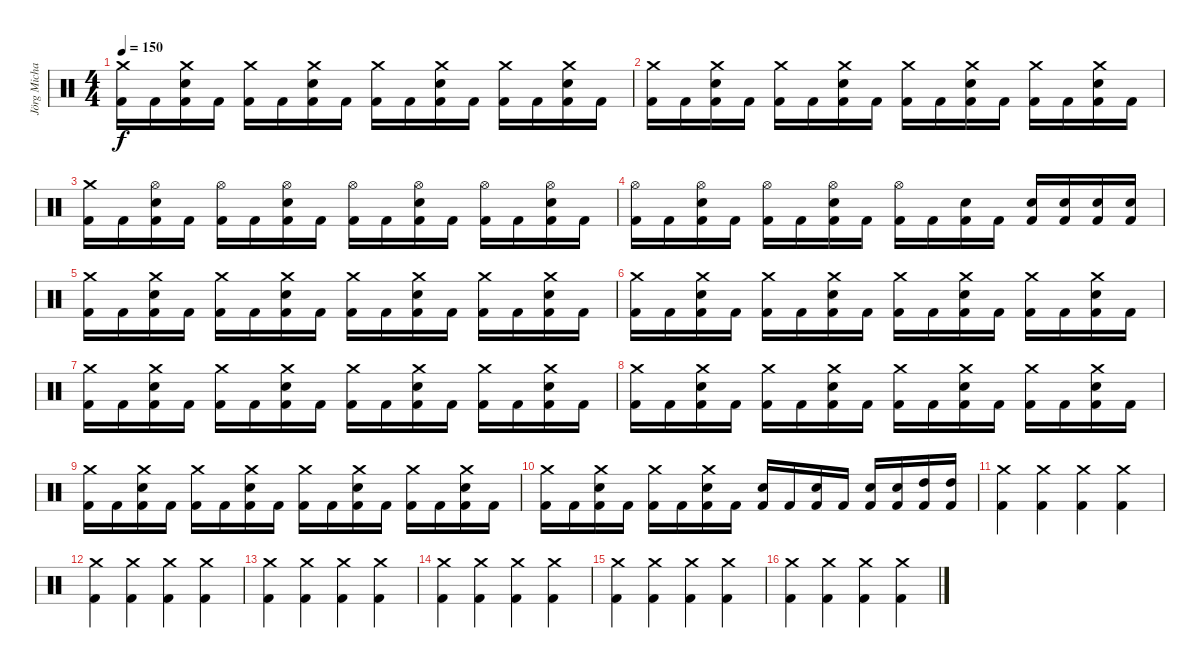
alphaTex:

\track ("Jörg Michael" "Jörg Micha") {instrument percussion}
\staff {score}
\articulation defaults
\ts (4 4)
\tempo 150
\clef neutral
\ks c
("Crash medium (hit)" "Kick (hit) 2").16{dy f} "Kick (hit) 2".16 ("Snare (hit) 2" "Crash medium (hit)" "Kick (hit) 2").16 "Kick (hit) 2".16 ("Crash medium (hit)" "Kick (hit) 2").16 "Kick (hit) 2".16 ("Snare (hit) 2" "Crash medium (hit)" "Kick (hit) 2").16 "Kick (hit) 2".16 ("Crash medium (hit)" "Kick (hit) 2").16 "Kick (hit) 2".16 ("Snare (hit) 2" "Crash medium (hit)" "Kick (hit) 2").16 "Kick (hit) 2".16 ("Crash medium (hit)" "Kick (hit) 2").16 "Kick (hit) 2".16 ("Snare (hit) 2" "Crash medium (hit)" "Kick (hit) 2").16 "Kick (hit) 2".16 |
("Crash medium (hit)" "Kick (hit) 2").16 "Kick (hit) 2".16 ("Snare (hit) 2" "Crash medium (hit)" "Kick (hit) 2").16 "Kick (hit) 2".16 ("Crash medium (hit)" "Kick (hit) 2").16 "Kick (hit) 2".16 ("Snare (hit) 2" "Crash medium (hit)" "Kick (hit) 2").16 "Kick (hit) 2".16 ("Crash medium (hit)" "Kick (hit) 2").16 "Kick (hit) 2".16 ("Snare (hit) 2" "Crash medium (hit)" "Kick (hit) 2").16 "Kick (hit) 2".16 ("Crash medium (hit)" "Kick (hit) 2").16 "Kick (hit) 2".16 ("Snare (hit) 2" "Crash medium (hit)" "Kick (hit) 2").16 "Kick (hit) 2".16 |
("Crash medium (hit)" "Kick (hit) 2").16 "Kick (hit) 2".16 ("Hi-Hat (open)" "Snare (hit) 2" "Kick (hit) 2").16 "Kick (hit) 2".16 ("Hi-Hat (open)" "Kick (hit) 2").16 "Kick (hit) 2".16 ("Hi-Hat (open)" "Snare (hit) 2" "Kick (hit) 2").16 "Kick (hit) 2".16 ("Hi-Hat (open)" "Kick (hit) 2").16 "Kick (hit) 2".16 ("Hi-Hat (open)" "Snare (hit) 2" "Kick (hit) 2").16 "Kick (hit) 2".16 ("Hi-Hat (open)" "Kick (hit) 2").16 "Kick (hit) 2".16 ("Hi-Hat (open)" "Snare (hit) 2" "Kick (hit) 2").16 "Kick (hit) 2".16 |
("Hi-Hat (open)" "Kick (hit) 2").16 "Kick (hit) 2".16 ("Hi-Hat (open)" "Snare (hit) 2" "Kick (hit) 2").16 "Kick (hit) 2".16 ("Hi-Hat (open)" "Kick (hit) 2").16 "Kick (hit) 2".16 ("Hi-Hat (open)" "Snare (hit) 2" "Kick (hit) 2").16 "Kick (hit) 2".16 ("Hi-Hat (open)" "Kick (hit) 2").16 "Kick (hit) 2".16 ("Snare (hit) 2" "Kick (hit) 2").16 "Kick (hit) 2".16 ("Snare (hit) 2" "Kick (hit) 2").16 ("Snare (hit) 2" "Kick (hit) 2").16 ("Snare (hit) 2" "Kick (hit) 2").16 ("Snare (hit) 2" "Kick (hit) 2").16 |
("Crash medium (hit)" "Kick (hit) 2").16 "Kick (hit) 2".16 ("Snare (hit) 2" "Crash medium (hit)" "Kick (hit) 2").16 "Kick (hit) 2".16 ("Crash medium (hit)" "Kick (hit) 2").16 "Kick (hit) 2".16 ("Snare (hit) 2" "Crash medium (hit)" "Kick (hit) 2").16 "Kick (hit) 2".16 ("Crash medium (hit)" "Kick (hit) 2").16 "Kick (hit) 2".16 ("Snare (hit) 2" "Crash medium (hit)" "Kick (hit) 2").16 "Kick (hit) 2".16 ("Crash medium (hit)" "Kick (hit) 2").16 "Kick (hit) 2".16 ("Snare (hit) 2" "Crash medium (hit)" "Kick (hit) 2").16 "Kick (hit) 2".16 |
("Crash medium (hit)" "Kick (hit) 2").16 "Kick (hit) 2".16 ("Snare (hit) 2" "Crash medium (hit)" "Kick (hit) 2").16 "Kick (hit) 2".16 ("Crash medium (hit)" "Kick (hit) 2").16 "Kick (hit) 2".16 ("Snare (hit) 2" "Crash medium (hit)" "Kick (hit) 2").16 "Kick (hit) 2".16 ("Crash medium (hit)" "Kick (hit) 2").16 "Kick (hit) 2".16 ("Snare (hit) 2" "Crash medium (hit)" "Kick (hit) 2").16 "Kick (hit) 2".16 ("Crash medium (hit)" "Kick (hit) 2").16 "Kick (hit) 2".16 ("Snare (hit) 2" "Crash medium (hit)" "Kick (hit) 2").16 "Kick (hit) 2".16 |
("Crash medium (hit)" "Kick (hit) 2").16 "Kick (hit) 2".16 ("Snare (hit) 2" "Crash medium (hit)" "Kick (hit) 2").16 "Kick (hit) 2".16 ("Crash medium (hit)" "Kick (hit) 2").16 "Kick (hit) 2".16 ("Snare (hit) 2" "Crash medium (hit)" "Kick (hit) 2").16 "Kick (hit) 2".16 ("Crash medium (hit)" "Kick (hit) 2").16 "Kick (hit) 2".16 ("Snare (hit) 2" "Crash medium (hit)" "Kick (hit) 2").16 "Kick (hit) 2".16 ("Crash medium (hit)" "Kick (hit) 2").16 "Kick (hit) 2".16 ("Snare (hit) 2" "Crash medium (hit)" "Kick (hit) 2").16 "Kick (hit) 2".16 |
("Crash medium (hit)" "Kick (hit) 2").16 "Kick (hit) 2".16 ("Snare (hit) 2" "Crash medium (hit)" "Kick (hit) 2").16 "Kick (hit) 2".16 ("Crash medium (hit)" "Kick (hit) 2").16 "Kick (hit) 2".16 ("Snare (hit) 2" "Crash medium (hit)" "Kick (hit) 2").16 "Kick (hit) 2".16 ("Crash medium (hit)" "Kick (hit) 2").16 "Kick (hit) 2".16 ("Snare (hit) 2" "Crash medium (hit)" "Kick (hit) 2").16 "Kick (hit) 2".16 ("Crash medium (hit)" "Kick (hit) 2").16 "Kick (hit) 2".16 ("Snare (hit) 2" "Crash medium (hit)" "Kick (hit) 2").16 "Kick (hit) 2".16 |
("Crash medium (hit)" "Kick (hit) 2").16 "Kick (hit) 2".16 ("Snare (hit) 2" "Crash medium (hit)" "Kick (hit) 2").16 "Kick (hit) 2".16 ("Crash medium (hit)" "Kick (hit) 2").16 "Kick (hit) 2".16 ("Snare (hit) 2" "Crash medium (hit)" "Kick (hit) 2").16 "Kick (hit) 2".16 ("Crash medium (hit)" "Kick (hit) 2").16 "Kick (hit) 2".16 ("Snare (hit) 2" "Crash medium (hit)" "Kick (hit) 2").16 "Kick (hit) 2".16 ("Crash medium (hit)" "Kick (hit) 2").16 "Kick (hit) 2".16 ("Snare (hit) 2" "Crash medium (hit)" "Kick (hit) 2").16 "Kick (hit) 2".16 |
("Crash medium (hit)" "Kick (hit) 2").16 "Kick (hit) 2".16 ("Snare (hit) 2" "Crash medium (hit)" "Kick (hit) 2").16 "Kick (hit) 2".16 ("Crash medium (hit)" "Kick (hit) 2").16 "Kick (hit) 2".16 ("Snare (hit) 2" "Crash medium (hit)" "Kick (hit) 2").16 "Kick (hit) 2".16 ("Snare (hit) 2" "Kick (hit) 2").16 "Kick (hit) 2".16 ("Snare (hit) 2" "Kick (hit) 2").16 "Kick (hit) 2".16 ("Snare (hit) 2" "Kick (hit) 2").16 ("Snare (hit) 2" "Kick (hit) 2").16 ("High Tom (hit)" "Kick (hit) 2").16 ("High Tom (hit)" "Kick (hit) 2").16 |
("Kick (hit) 2" "Crash medium (hit)").4 ("Kick (hit) 2" "Crash medium (hit)").4 ("Kick (hit) 2" "Crash medium (hit)").4 ("Kick (hit) 2" "Crash medium (hit)").4 |
("Kick (hit) 2" "Crash medium (hit)").4 ("Kick (hit) 2" "Crash medium (hit)").4 ("Kick (hit) 2" "Crash medium (hit)").4 ("Kick (hit) 2" "Crash medium (hit)").4 |
("Kick (hit) 2" "Crash medium (hit)").4 ("Kick (hit) 2" "Crash medium (hit)").4 ("Kick (hit) 2" "Crash medium (hit)").4 ("Kick (hit) 2" "Crash medium (hit)").4 |
("Kick (hit) 2" "Crash medium (hit)").4 ("Kick (hit) 2" "Crash medium (hit)").4 ("Kick (hit) 2" "Crash medium (hit)").4 ("Kick (hit) 2" "Crash medium (hit)").4 |
("Kick (hit) 2" "Crash medium (hit)").4 ("Kick (hit) 2" "Crash medium (hit)").4 ("Kick (hit) 2" "Crash medium (hit)").4 ("Kick (hit) 2" "Crash medium (hit)").4 |
("Kick (hit) 2" "Crash medium (hit)").4 ("Kick (hit) 2" "Crash medium (hit)").4 ("Kick (hit) 2" "Crash medium (hit)").4 ("Kick (hit) 2" "Crash medium (hit)").4
